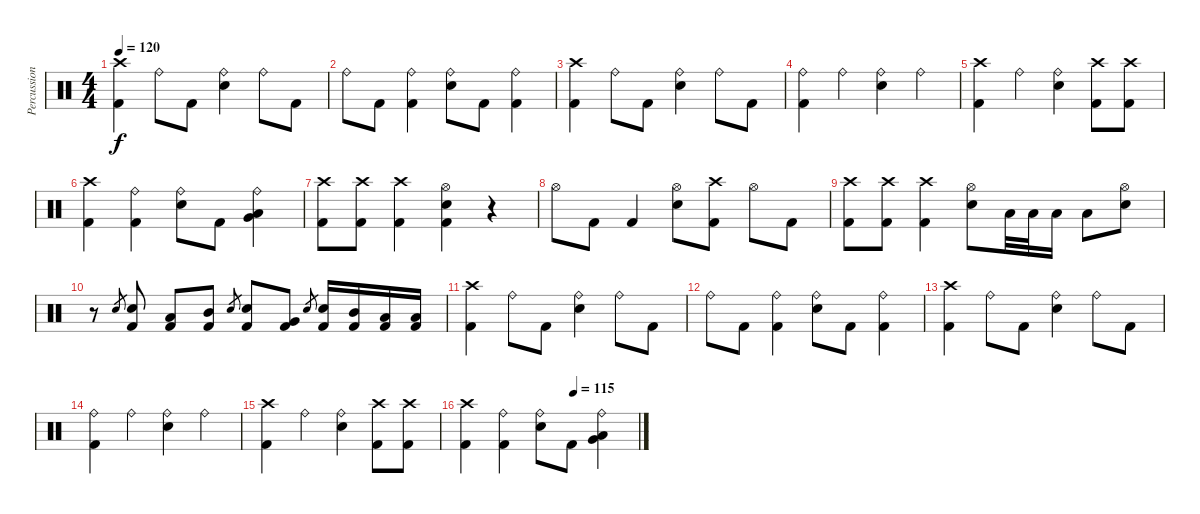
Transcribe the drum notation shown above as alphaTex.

\track ("Percussion" "Percussion") {instrument percussion}
\staff {score}
\articulation defaults
\ts (4 4)
\tempo 120
\clef neutral
\ks c
("Crash high (hit)" "Kick (hit) 2").4{dy f} "Ride (bell)".8 "Kick (hit) 2".8 ("Ride (bell)" "Electric Snare (hit)").4 "Ride (bell)".8 "Kick (hit) 2".8 |
"Ride (bell)".8 "Kick (hit) 2".8 ("Ride (bell)" "Kick (hit) 2").4 ("Ride (bell)" "Electric Snare (hit)").8 "Kick (hit) 2".8 ("Ride (bell)" "Kick (hit) 2").4 |
("Crash high (hit)" "Kick (hit) 2").4 "Ride (bell)".8 "Kick (hit) 2".8 ("Ride (bell)" "Electric Snare (hit)").4 "Ride (bell)".8 "Kick (hit) 2".8 |
("Ride (bell)" "Kick (hit) 2").4 "Ride (bell)".4 ("Ride (bell)" "Electric Snare (hit)").4 "Ride (bell)".4 |
("Crash high (hit)" "Kick (hit) 2").4 "Ride (bell)".4 ("Ride (bell)" "Electric Snare (hit)").4 ("Crash high (hit)" "Kick (hit) 2").8 ("Crash high (hit)" "Kick (hit) 2").8 |
("Crash high (hit)" "Kick (hit) 2").4 ("Ride (bell)" "Kick (hit) 2").4 ("Ride (bell)" "Electric Snare (hit)").8 "Kick (hit) 2".8 ("Ride (bell)" "Low Tom (hit)" "Very Low Tom (hit)").4 |
("Crash high (hit)" "Kick (hit) 2").8 ("Crash high (hit)" "Kick (hit) 2").8 ("Crash high (hit)" "Kick (hit) 2").4 ("Hi-Hat (open)" "Electric Snare (hit)" "Kick (hit) 2").4 r.4 |
"Hi-Hat (open)".8 "Kick (hit) 2".8 "Kick (hit) 2".4 ("Hi-Hat (open)" "Electric Snare (hit)").8 ("Crash high (hit)" "Kick (hit) 2").8 "Hi-Hat (open)".8 "Kick (hit) 2".8 |
("Crash high (hit)" "Kick (hit) 2").8 ("Crash high (hit)" "Kick (hit) 2").8 ("Crash high (hit)" "Kick (hit) 2").4 ("Hi-Hat (open)" "Electric Snare (hit)").8 "Low Tom (hit)".32 "Low Tom (hit)".32 "Low Tom (hit)".16 "Low Tom (hit)".8 ("Hi-Hat (open)" "Electric Snare (hit)").8 |
r.8 "Electric Snare (hit)".8{gr} ("Kick (hit) 2" "Electric Snare (hit)").8 ("Kick (hit) 2" "Low Tom (hit)").8 ("Kick (hit) 2" "Mid Tom (hit)").8 "Electric Snare (hit)".8{gr} ("Kick (hit) 2" "Electric Snare (hit)").8 ("Kick (hit) 2" "Very Low Tom (hit)").8 "Electric Snare (hit)".8{gr} ("Kick (hit) 2" "Electric Snare (hit)").16 ("Kick (hit) 2" "Mid Tom (hit)").16 ("Kick (hit) 2" "Low Tom (hit)").16 ("Kick (hit) 2" "Low Tom (hit)").16 |
("Crash high (hit)" "Kick (hit) 2").4 "Ride (bell)".8 "Kick (hit) 2".8 ("Ride (bell)" "Electric Snare (hit)").4 "Ride (bell)".8 "Kick (hit) 2".8 |
"Ride (bell)".8 "Kick (hit) 2".8 ("Ride (bell)" "Kick (hit) 2").4 ("Ride (bell)" "Electric Snare (hit)").8 "Kick (hit) 2".8 ("Ride (bell)" "Kick (hit) 2").4 |
("Crash high (hit)" "Kick (hit) 2").4 "Ride (bell)".8 "Kick (hit) 2".8 ("Ride (bell)" "Electric Snare (hit)").4 "Ride (bell)".8 "Kick (hit) 2".8 |
("Ride (bell)" "Kick (hit) 2").4 "Ride (bell)".4 ("Ride (bell)" "Electric Snare (hit)").4 "Ride (bell)".4 |
("Crash high (hit)" "Kick (hit) 2").4 "Ride (bell)".4 ("Ride (bell)" "Electric Snare (hit)").4 ("Crash high (hit)" "Kick (hit) 2").8 ("Crash high (hit)" "Kick (hit) 2").8 |
\tempo (115 0.625)
("Crash high (hit)" "Kick (hit) 2").4 ("Ride (bell)" "Kick (hit) 2").4 ("Ride (bell)" "Electric Snare (hit)").8 "Kick (hit) 2".8 ("Ride (bell)" "Low Tom (hit)" "Very Low Tom (hit)").4
